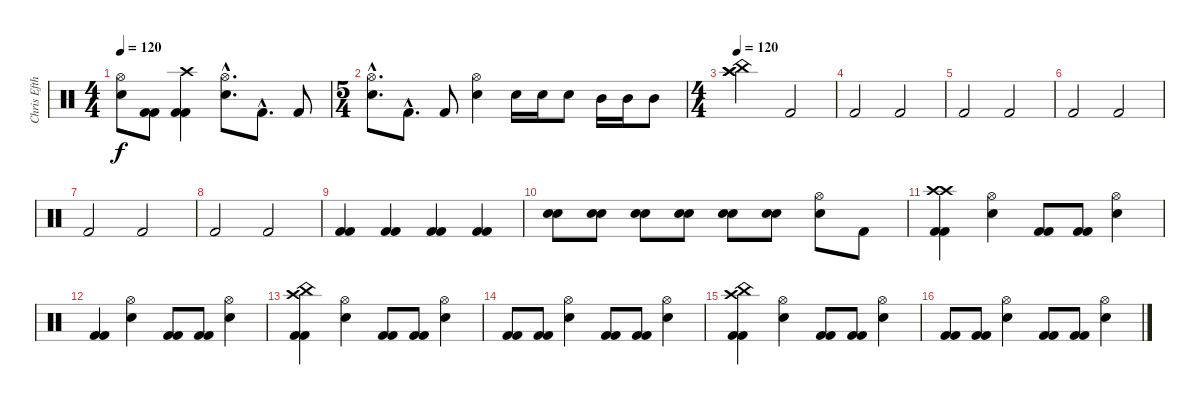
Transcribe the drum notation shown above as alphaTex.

\track ("Chris Efthimiadis" "Chris Efth") {instrument percussion}
\staff {score}
\articulation defaults
\ts (4 4)
\tempo 120
\clef neutral
\ks c
("Hi-Hat (open)" "Snare (hit) 2").8{dy f} ("Kick (hit) 2" "Kick (hit) 2").8 ("Crash high (hit)" "Kick (hit) 2" "Kick (hit) 2").4 ("Hi-Hat (open)"{hac} "Snare (hit) 2"{hac}).8{d} "Kick (hit) 2"{hac}.8{d} "Kick (hit) 2".8 |
\ts (5 4)
("Hi-Hat (open)"{hac} "Snare (hit) 2"{hac}).8{d} "Kick (hit) 2"{hac}.8{d} "Kick (hit) 2".8 ("Snare (hit) 2" "Hi-Hat (open)").4 "Snare (hit) 2".16 "Snare (hit) 2".16 "Snare (hit) 2".8 "Mid Tom (hit)".16 "Mid Tom (hit)".16 "Mid Tom (hit)".8 |
\ts (4 4)
\tempo 63
\tempo 120
("China (hit)" "Crash high (hit)" "Crash high (hit)").2 "Kick (hit) 2".2 |
"Kick (hit) 2".2 "Kick (hit) 2".2 |
"Kick (hit) 2".2 "Kick (hit) 2".2 |
"Kick (hit) 2".2 "Kick (hit) 2".2 |
"Kick (hit) 2".2 "Kick (hit) 2".2 |
"Kick (hit) 2".2 "Kick (hit) 2".2 |
("Kick (hit) 2" "Kick (hit) 2").4{volume 16} ("Kick (hit) 2" "Kick (hit) 2").4 ("Kick (hit) 2" "Kick (hit) 2").4 ("Kick (hit) 2" "Kick (hit) 2").4 |
("Snare (hit) 2" "Snare (hit) 2").8 ("Snare (hit) 2" "Snare (hit) 2").8 ("Snare (hit) 2" "Snare (hit) 2").8 ("Snare (hit) 2" "Snare (hit) 2").8 ("Snare (hit) 2" "Snare (hit) 2").8 ("Snare (hit) 2" "Snare (hit) 2").8 ("Snare (hit) 2" "Hi-Hat (open)").8 "Kick (hit) 2".8 |
("Crash high (hit)" "Kick (hit) 2" "Kick (hit) 2" "Crash high (hit)").4 ("Snare (hit) 2" "Hi-Hat (open)").4 ("Kick (hit) 2" "Kick (hit) 2").8 ("Kick (hit) 2" "Kick (hit) 2").8 ("Snare (hit) 2" "Hi-Hat (open)").4 |
("Kick (hit) 2" "Kick (hit) 2").4 ("Hi-Hat (open)" "Snare (hit) 2").4 ("Kick (hit) 2" "Kick (hit) 2").8 ("Kick (hit) 2" "Kick (hit) 2").8 ("Hi-Hat (open)" "Snare (hit) 2").4 |
("Crash high (hit)" "Kick (hit) 2" "Kick (hit) 2" "China (hit)").4 ("Snare (hit) 2" "Hi-Hat (open)").4 ("Kick (hit) 2" "Kick (hit) 2").8 ("Kick (hit) 2" "Kick (hit) 2").8 ("Snare (hit) 2" "Hi-Hat (open)").4 |
("Kick (hit) 2" "Kick (hit) 2").8 ("Kick (hit) 2" "Kick (hit) 2").8 ("Snare (hit) 2" "Hi-Hat (open)").4 ("Kick (hit) 2" "Kick (hit) 2").8 ("Kick (hit) 2" "Kick (hit) 2").8 ("Snare (hit) 2" "Hi-Hat (open)").4 |
("Crash high (hit)" "Kick (hit) 2" "Kick (hit) 2" "China (hit)").4 ("Snare (hit) 2" "Hi-Hat (open)").4 ("Kick (hit) 2" "Kick (hit) 2").8 ("Kick (hit) 2" "Kick (hit) 2").8 ("Snare (hit) 2" "Hi-Hat (open)").4 |
("Kick (hit) 2" "Kick (hit) 2").8 ("Kick (hit) 2" "Kick (hit) 2").8 ("Snare (hit) 2" "Hi-Hat (open)").4 ("Kick (hit) 2" "Kick (hit) 2").8 ("Kick (hit) 2" "Kick (hit) 2").8 ("Hi-Hat (open)" "Snare (hit) 2").4
